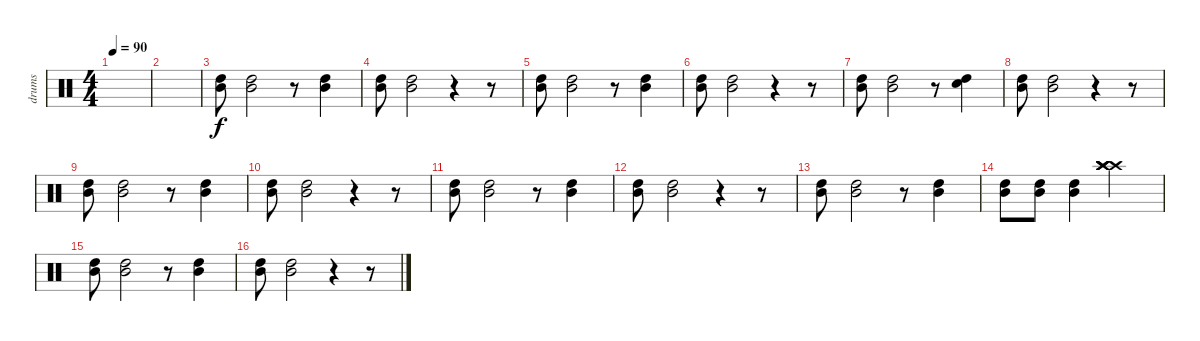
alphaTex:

\track ("drums" "drums") {instrument percussion}
\staff {score}
\articulation defaults
\ts (4 4)
\tempo 90
\clef neutral
\ks c
|
|
("Mid Tom (hit)" "High Tom (hit)").8 ("Mid Tom (hit)" "High Tom (hit)").2 r.8 ("Mid Tom (hit)" "High Tom (hit)").4 |
("Mid Tom (hit)" "High Tom (hit)").8 ("Mid Tom (hit)" "High Tom (hit)").2 r.4 r.8 |
("Mid Tom (hit)" "High Tom (hit)").8 ("Mid Tom (hit)" "High Tom (hit)").2 r.8 ("Mid Tom (hit)" "High Tom (hit)").4 |
("Mid Tom (hit)" "High Tom (hit)").8 ("Mid Tom (hit)" "High Tom (hit)").2 r.4 r.8 |
("Mid Tom (hit)" "High Tom (hit)").8 ("Mid Tom (hit)" "High Tom (hit)").2 r.8 ("Snare (hit)" "High Tom (hit)").4 |
("Mid Tom (hit)" "High Tom (hit)").8 ("Mid Tom (hit)" "High Tom (hit)").2 r.4 r.8 |
("Mid Tom (hit)" "High Tom (hit)").8 ("Mid Tom (hit)" "High Tom (hit)").2 r.8 ("Mid Tom (hit)" "High Tom (hit)").4 |
("Mid Tom (hit)" "High Tom (hit)").8 ("Mid Tom (hit)" "High Tom (hit)").2 r.4 r.8 |
("Mid Tom (hit)" "High Tom (hit)").8 ("Mid Tom (hit)" "High Tom (hit)").2 r.8 ("Mid Tom (hit)" "High Tom (hit)").4 |
("Mid Tom (hit)" "High Tom (hit)").8 ("Mid Tom (hit)" "High Tom (hit)").2 r.4 r.8 |
("Mid Tom (hit)" "High Tom (hit)").8 ("Mid Tom (hit)" "High Tom (hit)").2 r.8 ("Mid Tom (hit)" "High Tom (hit)").4 |
("Mid Tom (hit)" "High Tom (hit)").8 ("Mid Tom (hit)" "High Tom (hit)").8 ("Mid Tom (hit)" "High Tom (hit)").4 ("Crash high (hit)" "Crash high (hit)" "Crash high (hit)" "Crash high (hit)").2 |
("Mid Tom (hit)" "High Tom (hit)").8 ("Mid Tom (hit)" "High Tom (hit)").2 r.8 ("Mid Tom (hit)" "High Tom (hit)").4 |
("Mid Tom (hit)" "High Tom (hit)").8 ("Mid Tom (hit)" "High Tom (hit)").2 r.4 r.8
